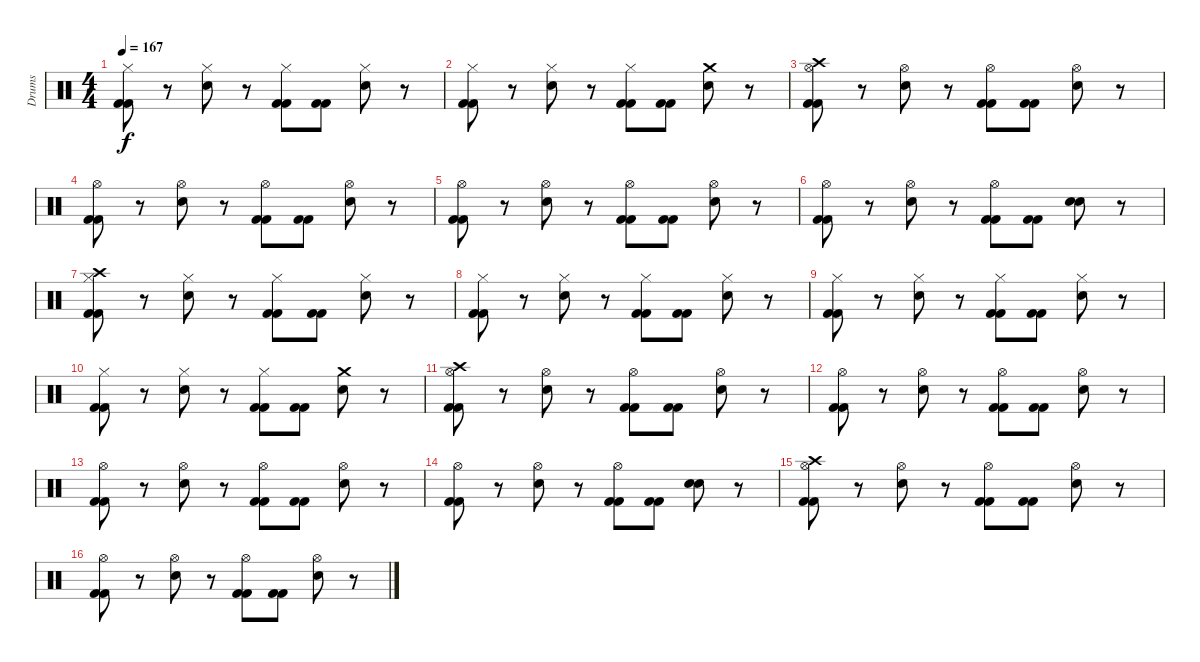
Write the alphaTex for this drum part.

\track ("Drums" "Drums") {instrument percussion}
\staff {score}
\articulation defaults
\ts (4 4)
\tempo 167
\clef neutral
\ks c
("Hi-Hat (closed)" "Kick (hit) 2" "Kick (hit) 2").8{dy f} r.8 ("Hi-Hat (closed)" "Electric Snare (hit)").8 r.8 ("Hi-Hat (closed)" "Kick (hit) 2" "Kick (hit) 2").8 ("Kick (hit) 2" "Kick (hit) 2").8 ("Hi-Hat (closed)" "Electric Snare (hit)").8 r.8 |
("Hi-Hat (closed)" "Kick (hit) 2" "Kick (hit) 2").8 r.8 ("Hi-Hat (closed)" "Electric Snare (hit)").8 r.8 ("Hi-Hat (closed)" "Kick (hit) 2" "Kick (hit) 2").8 ("Kick (hit) 2" "Kick (hit) 2").8 ("Crash medium (hit)" "Electric Snare (hit)").8 r.8 |
("Crash high (hit)" "Hi-Hat (open)" "Kick (hit) 2" "Kick (hit) 2").8 r.8 ("Hi-Hat (open)" "Electric Snare (hit)").8 r.8 ("Hi-Hat (open)" "Kick (hit) 2" "Kick (hit) 2").8 ("Kick (hit) 2" "Kick (hit) 2").8 ("Hi-Hat (open)" "Electric Snare (hit)").8 r.8 |
("Hi-Hat (open)" "Kick (hit) 2" "Kick (hit) 2").8 r.8 ("Hi-Hat (open)" "Electric Snare (hit)").8 r.8 ("Hi-Hat (open)" "Kick (hit) 2" "Kick (hit) 2").8 ("Kick (hit) 2" "Kick (hit) 2").8 ("Hi-Hat (open)" "Electric Snare (hit)").8 r.8 |
("Hi-Hat (open)" "Kick (hit) 2" "Kick (hit) 2").8 r.8 ("Hi-Hat (open)" "Electric Snare (hit)").8 r.8 ("Hi-Hat (open)" "Kick (hit) 2" "Kick (hit) 2").8 ("Kick (hit) 2" "Kick (hit) 2").8 ("Hi-Hat (open)" "Electric Snare (hit)").8 r.8 |
("Hi-Hat (open)" "Kick (hit) 2" "Kick (hit) 2").8 r.8 ("Hi-Hat (open)" "Electric Snare (hit)").8 r.8 ("Hi-Hat (open)" "Kick (hit) 2" "Kick (hit) 2").8 ("Kick (hit) 2" "Kick (hit) 2").8 ("Electric Snare (hit)" "Electric Snare (hit)").8 r.8 |
("Crash high (hit)" "Hi-Hat (closed)" "Kick (hit) 2" "Kick (hit) 2").8 r.8 ("Hi-Hat (closed)" "Electric Snare (hit)").8 r.8 ("Hi-Hat (closed)" "Kick (hit) 2" "Kick (hit) 2").8 ("Kick (hit) 2" "Kick (hit) 2").8 ("Hi-Hat (closed)" "Electric Snare (hit)").8 r.8 |
("Hi-Hat (closed)" "Kick (hit) 2" "Kick (hit) 2").8 r.8 ("Hi-Hat (closed)" "Electric Snare (hit)").8 r.8 ("Hi-Hat (closed)" "Kick (hit) 2" "Kick (hit) 2").8 ("Kick (hit) 2" "Kick (hit) 2").8 ("Hi-Hat (closed)" "Electric Snare (hit)").8 r.8 |
("Hi-Hat (closed)" "Kick (hit) 2" "Kick (hit) 2").8 r.8 ("Hi-Hat (closed)" "Electric Snare (hit)").8 r.8 ("Hi-Hat (closed)" "Kick (hit) 2" "Kick (hit) 2").8 ("Kick (hit) 2" "Kick (hit) 2").8 ("Hi-Hat (closed)" "Electric Snare (hit)").8 r.8 |
("Hi-Hat (closed)" "Kick (hit) 2" "Kick (hit) 2").8 r.8 ("Hi-Hat (closed)" "Electric Snare (hit)").8 r.8 ("Hi-Hat (closed)" "Kick (hit) 2" "Kick (hit) 2").8 ("Kick (hit) 2" "Kick (hit) 2").8 ("Crash medium (hit)" "Electric Snare (hit)").8 r.8 |
("Crash high (hit)" "Hi-Hat (open)" "Kick (hit) 2" "Kick (hit) 2").8 r.8 ("Hi-Hat (open)" "Electric Snare (hit)").8 r.8 ("Hi-Hat (open)" "Kick (hit) 2" "Kick (hit) 2").8 ("Kick (hit) 2" "Kick (hit) 2").8 ("Hi-Hat (open)" "Electric Snare (hit)").8 r.8 |
("Hi-Hat (open)" "Kick (hit) 2" "Kick (hit) 2").8 r.8 ("Hi-Hat (open)" "Electric Snare (hit)").8 r.8 ("Hi-Hat (open)" "Kick (hit) 2" "Kick (hit) 2").8 ("Kick (hit) 2" "Kick (hit) 2").8 ("Hi-Hat (open)" "Electric Snare (hit)").8 r.8 |
("Hi-Hat (open)" "Kick (hit) 2" "Kick (hit) 2").8 r.8 ("Hi-Hat (open)" "Electric Snare (hit)").8 r.8 ("Hi-Hat (open)" "Kick (hit) 2" "Kick (hit) 2").8 ("Kick (hit) 2" "Kick (hit) 2").8 ("Hi-Hat (open)" "Electric Snare (hit)").8 r.8 |
("Hi-Hat (open)" "Kick (hit) 2" "Kick (hit) 2").8 r.8 ("Hi-Hat (open)" "Electric Snare (hit)").8 r.8 ("Hi-Hat (open)" "Kick (hit) 2" "Kick (hit) 2").8 ("Kick (hit) 2" "Kick (hit) 2").8 ("Electric Snare (hit)" "Electric Snare (hit)").8{bd 120} r.8 |
("Crash high (hit)" "Hi-Hat (open)" "Kick (hit) 2" "Kick (hit) 2").8 r.8 ("Hi-Hat (open)" "Electric Snare (hit)").8 r.8 ("Hi-Hat (open)" "Kick (hit) 2" "Kick (hit) 2").8 ("Kick (hit) 2" "Kick (hit) 2").8 ("Hi-Hat (open)" "Electric Snare (hit)").8 r.8 |
("Hi-Hat (open)" "Kick (hit) 2" "Kick (hit) 2").8 r.8 ("Hi-Hat (open)" "Electric Snare (hit)").8 r.8 ("Hi-Hat (open)" "Kick (hit) 2" "Kick (hit) 2").8 ("Kick (hit) 2" "Kick (hit) 2").8 ("Hi-Hat (open)" "Electric Snare (hit)").8 r.8
